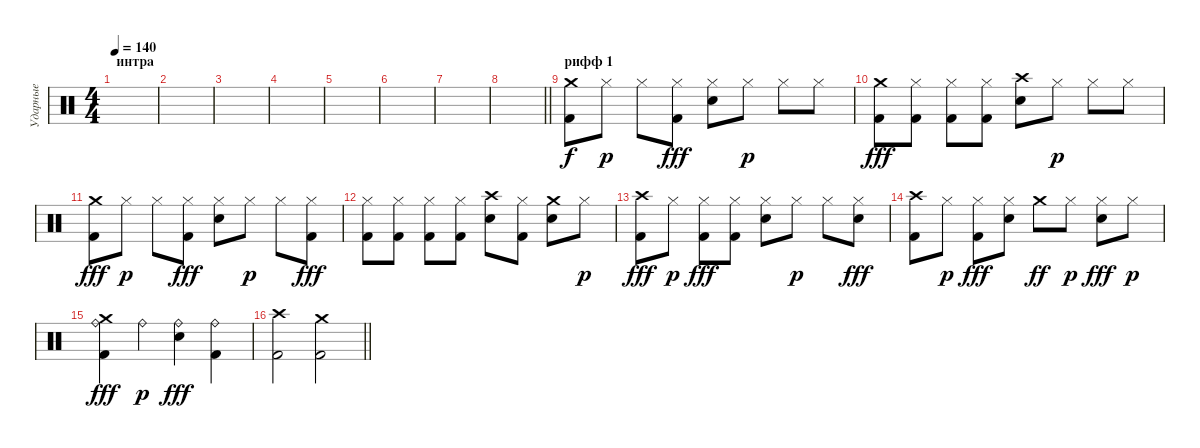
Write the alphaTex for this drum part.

\track ("Ударные" "Ударные") {instrument percussion}
\staff {score}
\articulation defaults
\ts (4 4)
\section ("" "интра")
\tempo 140
\clef neutral
\ks c
|
|
|
|
|
|
|
\barLineRight lightlight
|
\section ("" "рифф 1")
("Crash medium (hit)" "Kick (hit) 2").8 "Hi-Hat (closed)".8{dy p} "Hi-Hat (closed)".8 ("Hi-Hat (closed)" "Kick (hit) 2").8{dy fff} ("Hi-Hat (closed)" "Snare (hit) 2").8 "Hi-Hat (closed)".8{dy p} "Hi-Hat (closed)".8 "Hi-Hat (closed)".8 |
("Crash medium (hit)" "Kick (hit) 2").8{dy fff} ("Hi-Hat (closed)" "Kick (hit) 2").8 ("Hi-Hat (closed)" "Kick (hit) 2").8 ("Hi-Hat (closed)" "Kick (hit) 2").8 ("Crash high (hit)" "Snare (hit) 2").8 "Hi-Hat (closed)".8{dy p} "Hi-Hat (closed)".8 "Hi-Hat (closed)".8 |
("Crash medium (hit)" "Kick (hit) 2").8{dy fff} "Hi-Hat (closed)".8{dy p} "Hi-Hat (closed)".8 ("Hi-Hat (closed)" "Kick (hit) 2").8{dy fff} ("Hi-Hat (closed)" "Snare (hit) 2").8 "Hi-Hat (closed)".8{dy p} "Hi-Hat (closed)".8 ("Hi-Hat (closed)" "Kick (hit) 2").8{dy fff} |
("Hi-Hat (closed)" "Kick (hit) 2").8 ("Hi-Hat (closed)" "Kick (hit) 2").8 ("Hi-Hat (closed)" "Kick (hit) 2").8 ("Hi-Hat (closed)" "Kick (hit) 2").8 ("Crash high (hit)" "Snare (hit) 2").8 ("Hi-Hat (closed)" "Kick (hit) 2").8 ("Crash medium (hit)" "Snare (hit) 2").8 "Hi-Hat (closed)".8{dy p} |
("Crash high (hit)" "Kick (hit) 2").8{dy fff} "Hi-Hat (closed)".8{dy p} ("Hi-Hat (closed)" "Kick (hit) 2").8{dy fff} ("Hi-Hat (closed)" "Kick (hit) 2").8 ("Hi-Hat (closed)" "Snare (hit) 2").8 "Hi-Hat (closed)".8{dy p} "Hi-Hat (closed)".8 ("Hi-Hat (closed)" "Snare (hit) 2").8{dy fff} |
("Crash high (hit)" "Kick (hit) 2").8 "Hi-Hat (closed)".8{dy p} ("Hi-Hat (closed)" "Kick (hit) 2").8{dy fff} ("Hi-Hat (closed)" "Snare (hit) 2").8 "Crash medium (hit)".8{dy ff} "Hi-Hat (closed)".8{dy p} ("Hi-Hat (closed)" "Snare (hit) 2").8{dy fff} "Hi-Hat (closed)".8{dy p} |
("Crash medium (hit)" "Ride (bell)" "Kick (hit) 2").4{dy fff} "Ride (bell)".4{dy p} ("Ride (bell)" "Snare (hit) 2").4{dy fff} ("Ride (bell)" "Kick (hit) 2").4 |
\barLineRight lightlight
("Crash high (hit)" "Kick (hit) 2").2 ("Crash medium (hit)" "Kick (hit) 2").2
